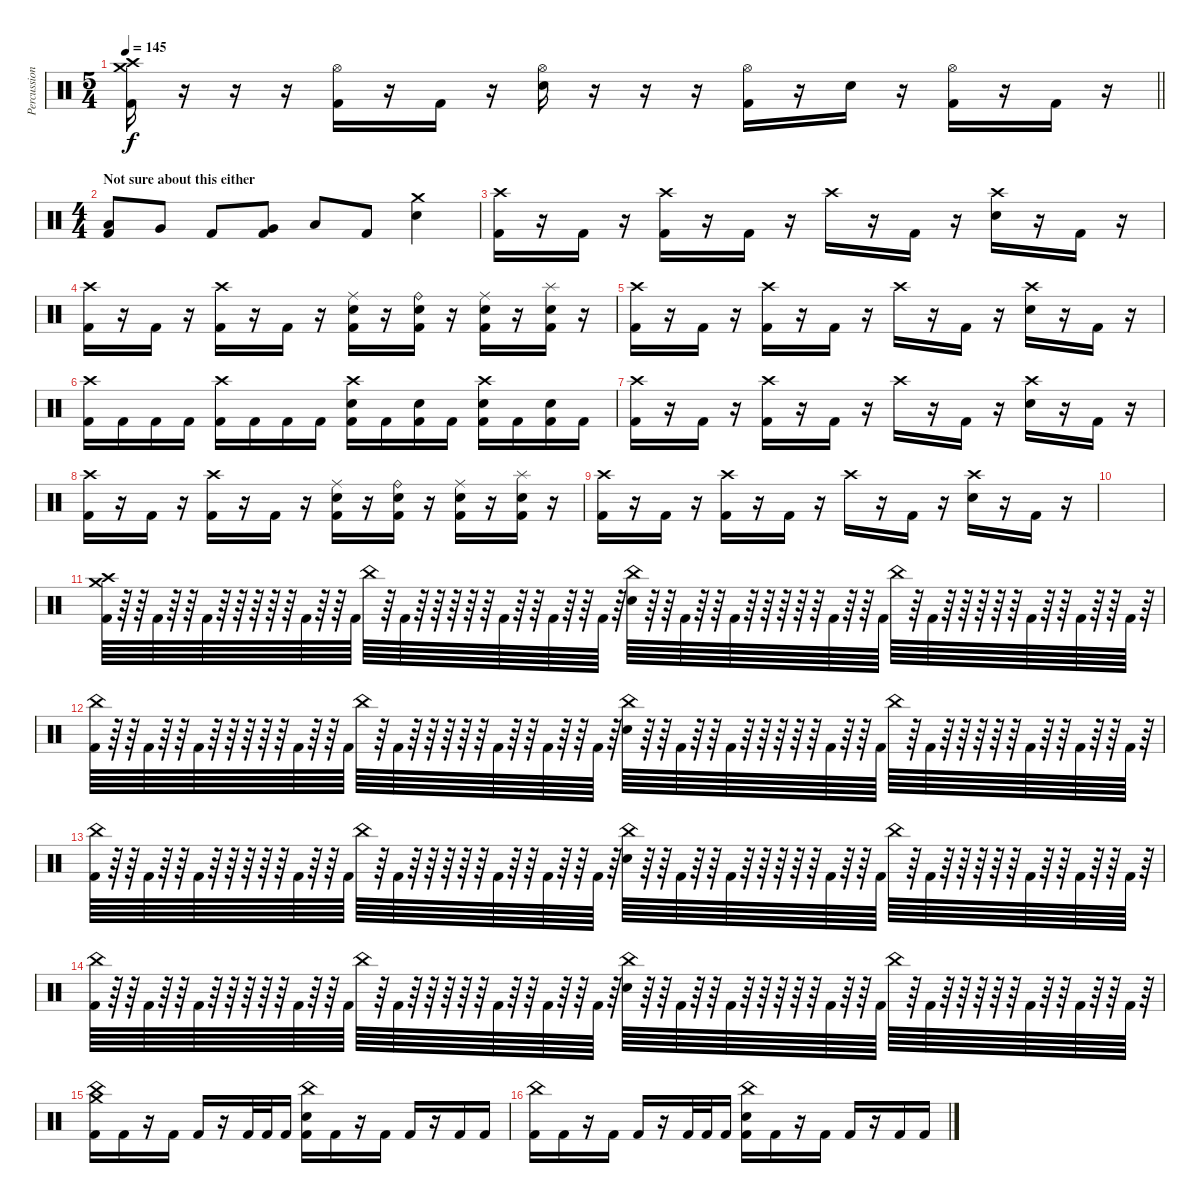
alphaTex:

\track ("Percussion" "Percussion") {instrument percussion}
\staff {score}
\articulation defaults
\ts (5 4)
\tempo 145
\clef neutral
\barLineRight lightlight
\ks c
("Crash medium (hit)" "Crash high (hit)" "Kick (hit) 2").16{dy f} r.16 r.16 r.16 ("Hi-Hat (open)" "Kick (hit) 2").16 r.16 "Kick (hit) 2".16 r.16 ("Hi-Hat (open)" "Snare (hit) 2").16 r.16 r.16 r.16 ("Hi-Hat (open)" "Kick (hit) 2").16 r.16 "Snare (hit) 2".16 r.16 ("Hi-Hat (open)" "Kick (hit) 2").16 r.16 "Kick (hit) 2".16 r.16 |
\ts (4 4)
\section ("" "Not sure about this either")
("Low Tom (hit)" "Kick (hit) 2").8 "Very Low Tom (hit)".8 "Kick (hit) 2".8 ("Very Low Tom (hit)" "Kick (hit) 2").8 "Low Floor Tom (hit)".8 "Kick (hit) 2".8 ("Crash medium (hit)" "Snare (hit) 2").4 |
("Crash high (hit)" "Kick (hit) 2").16 r.16 "Kick (hit) 2".16 r.16 ("Crash high (hit)" "Kick (hit) 2").16 r.16 "Kick (hit) 2".16 r.16 "Crash high (hit)".16 r.16 "Kick (hit) 2".16 r.16 ("Crash high (hit)" "Snare (hit) 2").16 r.16 "Kick (hit) 2".16 r.16 |
("Crash high (hit)" "Kick (hit) 2").16 r.16 "Kick (hit) 2".16 r.16 ("Crash high (hit)" "Kick (hit) 2").16 r.16 "Kick (hit) 2".16 r.16 ("Ride (middle)" "Snare (hit) 2" "Kick (hit) 2").16 r.16 ("Ride (bell)" "Snare (hit) 2" "Kick (hit) 2").16 r.16 ("Ride (middle)" "Snare (hit) 2" "Kick (hit) 2").16 r.16 ("Splash (hit)" "Snare (hit) 2" "Kick (hit) 2").16 r.16 |
("Crash high (hit)" "Kick (hit) 2").16 r.16 "Kick (hit) 2".16 r.16 ("Crash high (hit)" "Kick (hit) 2").16 r.16 "Kick (hit) 2".16 r.16 "Crash high (hit)".16 r.16 "Kick (hit) 2".16 r.16 ("Crash high (hit)" "Snare (hit) 2").16 r.16 "Kick (hit) 2".16 r.16 |
("Crash high (hit)" "Kick (hit) 2").16 "Kick (hit) 2".16 "Kick (hit) 2".16 "Kick (hit) 2".16 ("Crash high (hit)" "Kick (hit) 2").16 "Kick (hit) 2".16 "Kick (hit) 2".16 "Kick (hit) 2".16 ("Crash high (hit)" "Snare (hit) 2" "Kick (hit) 2").16 "Kick (hit) 2".16 ("Snare (hit) 2" "Kick (hit) 2").16 "Kick (hit) 2".16 ("Crash high (hit)" "Snare (hit) 2" "Kick (hit) 2").16 "Kick (hit) 2".16 ("Snare (hit) 2" "Kick (hit) 2").16 "Kick (hit) 2".16 |
("Crash high (hit)" "Kick (hit) 2").16 r.16 "Kick (hit) 2".16 r.16 ("Crash high (hit)" "Kick (hit) 2").16 r.16 "Kick (hit) 2".16 r.16 "Crash high (hit)".16 r.16 "Kick (hit) 2".16 r.16 ("Crash high (hit)" "Snare (hit) 2").16 r.16 "Kick (hit) 2".16 r.16 |
("Crash high (hit)" "Kick (hit) 2").16 r.16 "Kick (hit) 2".16 r.16 ("Crash high (hit)" "Kick (hit) 2").16 r.16 "Kick (hit) 2".16 r.16 ("Ride (middle)" "Snare (hit) 2" "Kick (hit) 2").16 r.16 ("Ride (bell)" "Snare (hit) 2" "Kick (hit) 2").16 r.16 ("Ride (middle)" "Snare (hit) 2" "Kick (hit) 2").16 r.16 ("Splash (hit)" "Snare (hit) 2" "Kick (hit) 2").16 r.16 |
("Crash high (hit)" "Kick (hit) 2").16 r.16 "Kick (hit) 2".16 r.16 ("Crash high (hit)" "Kick (hit) 2").16 r.16 "Kick (hit) 2".16 r.16 "Crash high (hit)".16 r.16 "Kick (hit) 2".16 r.16 ("Crash high (hit)" "Snare (hit) 2").16 r.16 "Kick (hit) 2".16 r.16 |
|
("Crash high (hit)" "Crash medium (hit)" "Kick (hit) 2").64 r.64 r.64 "Kick (hit) 2".64 r.64 r.64 "Kick (hit) 2".64 r.64 r.64 r.64 r.64 r.64 "Kick (hit) 2".64 r.64 r.64 "Kick (hit) 2".64 "China (hit)".64 r.64 "Kick (hit) 2".64 r.64 r.64 r.64 r.64 r.64 "Kick (hit) 2".64 r.64 r.64 "Kick (hit) 2".64 r.64 r.64 "Kick (hit) 2".64 r.64 ("China (hit)" "Snare (hit) 2").64 r.64 r.64 "Kick (hit) 2".64 r.64 r.64 "Kick (hit) 2".64 r.64 r.64 r.64 r.64 r.64 "Kick (hit) 2".64 r.64 r.64 "Kick (hit) 2".64 "China (hit)".64 r.64 "Kick (hit) 2".64 r.64 r.64 r.64 r.64 r.64 "Kick (hit) 2".64 r.64 r.64 "Kick (hit) 2".64 r.64 r.64 "Kick (hit) 2".64 r.64 |
("China (hit)" "Kick (hit) 2").64 r.64 r.64 "Kick (hit) 2".64 r.64 r.64 "Kick (hit) 2".64 r.64 r.64 r.64 r.64 r.64 "Kick (hit) 2".64 r.64 r.64 "Kick (hit) 2".64 "China (hit)".64 r.64 "Kick (hit) 2".64 r.64 r.64 r.64 r.64 r.64 "Kick (hit) 2".64 r.64 r.64 "Kick (hit) 2".64 r.64 r.64 "Kick (hit) 2".64 r.64 ("China (hit)" "Snare (hit) 2").64 r.64 r.64 "Kick (hit) 2".64 r.64 r.64 "Kick (hit) 2".64 r.64 r.64 r.64 r.64 r.64 "Kick (hit) 2".64 r.64 r.64 "Kick (hit) 2".64 "China (hit)".64 r.64 "Kick (hit) 2".64 r.64 r.64 r.64 r.64 r.64 "Kick (hit) 2".64 r.64 r.64 "Kick (hit) 2".64 r.64 r.64 "Kick (hit) 2".64 r.64 |
("China (hit)" "Kick (hit) 2").64 r.64 r.64 "Kick (hit) 2".64 r.64 r.64 "Kick (hit) 2".64 r.64 r.64 r.64 r.64 r.64 "Kick (hit) 2".64 r.64 r.64 "Kick (hit) 2".64 "China (hit)".64 r.64 "Kick (hit) 2".64 r.64 r.64 r.64 r.64 r.64 "Kick (hit) 2".64 r.64 r.64 "Kick (hit) 2".64 r.64 r.64 "Kick (hit) 2".64 r.64 ("China (hit)" "Snare (hit) 2").64 r.64 r.64 "Kick (hit) 2".64 r.64 r.64 "Kick (hit) 2".64 r.64 r.64 r.64 r.64 r.64 "Kick (hit) 2".64 r.64 r.64 "Kick (hit) 2".64 "China (hit)".64 r.64 "Kick (hit) 2".64 r.64 r.64 r.64 r.64 r.64 "Kick (hit) 2".64 r.64 r.64 "Kick (hit) 2".64 r.64 r.64 "Kick (hit) 2".64 r.64 |
("China (hit)" "Kick (hit) 2").64 r.64 r.64 "Kick (hit) 2".64 r.64 r.64 "Kick (hit) 2".64 r.64 r.64 r.64 r.64 r.64 "Kick (hit) 2".64 r.64 r.64 "Kick (hit) 2".64 "China (hit)".64 r.64 "Kick (hit) 2".64 r.64 r.64 r.64 r.64 r.64 "Kick (hit) 2".64 r.64 r.64 "Kick (hit) 2".64 r.64 r.64 "Kick (hit) 2".64 r.64 ("China (hit)" "Snare (hit) 2").64 r.64 r.64 "Kick (hit) 2".64 r.64 r.64 "Kick (hit) 2".64 r.64 r.64 r.64 r.64 r.64 "Kick (hit) 2".64 r.64 r.64 "Kick (hit) 2".64 "China (hit)".64 r.64 "Kick (hit) 2".64 r.64 r.64 r.64 r.64 r.64 "Kick (hit) 2".64 r.64 r.64 "Kick (hit) 2".64 r.64 r.64 "Kick (hit) 2".64 r.64 |
("China (hit)" "Crash medium (hit)" "Kick (hit) 2").16 "Kick (hit) 2".16 r.16 "Kick (hit) 2".16 "Kick (hit) 2".16 r.16 "Kick (hit) 2".32 "Kick (hit) 2".32 "Kick (hit) 2".16 ("China (hit)" "Snare (hit) 2" "Kick (hit) 2").16 "Kick (hit) 2".16 r.16 "Kick (hit) 2".16 "Kick (hit) 2".16 r.16 "Kick (hit) 2".16 "Kick (hit) 2".16 |
("China (hit)" "Kick (hit) 2").16 "Kick (hit) 2".16 r.16 "Kick (hit) 2".16 "Kick (hit) 2".16 r.16 "Kick (hit) 2".32 "Kick (hit) 2".32 "Kick (hit) 2".16 ("China (hit)" "Snare (hit) 2" "Kick (hit) 2").16 "Kick (hit) 2".16 r.16 "Kick (hit) 2".16 "Kick (hit) 2".16 r.16 "Kick (hit) 2".16 "Kick (hit) 2".16
